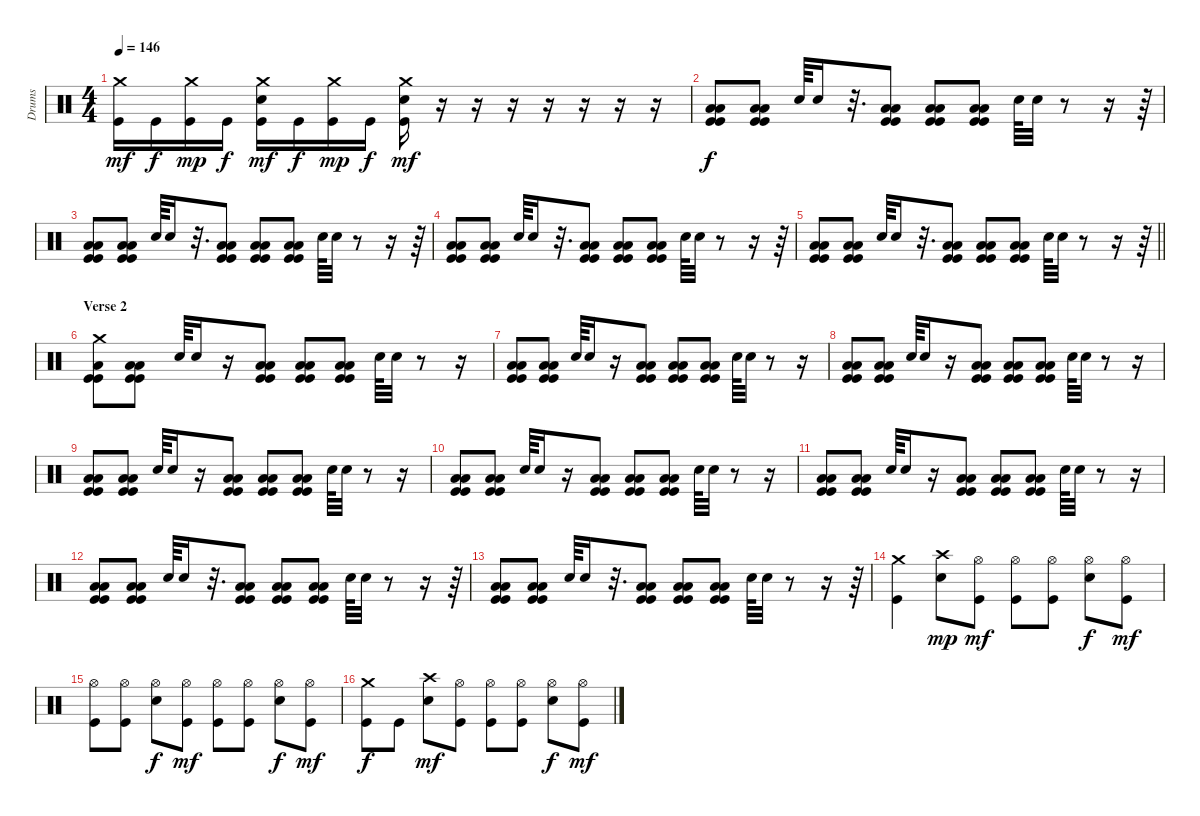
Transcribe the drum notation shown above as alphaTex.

\track ("Drums" "Drums") {instrument percussion}
\staff {score}
\articulation defaults
\ts (4 4)
\tempo 146
\clef neutral
\ks c
("Crash medium (hit)" "Kick (hit)").16{dy mf} "Kick (hit)".16{dy f} ("Crash medium (hit)" "Kick (hit)").16{dy mp} "Kick (hit)".16{dy f} ("Crash medium (hit)" "Snare (hit) 2" "Kick (hit)").16{dy mf} "Kick (hit)".16{dy f} ("Crash medium (hit)" "Kick (hit)").16{dy mp} "Kick (hit)".16{dy f} ("Crash medium (hit)" "Snare (hit) 2" "Kick (hit)").16{dy mf} r.16 r.16 r.16 r.16 r.16 r.16 r.16 |
("Low Tom (hit)" "Low Floor Tom (hit)" "Kick (hit)" "Kick (hit)").8{dy f} ("Low Tom (hit)" "Low Floor Tom (hit)" "Kick (hit)" "Kick (hit)").8 "Snare (hit) 2".64 "Snare (hit) 2".16 r.32{d} ("Low Tom (hit)" "Low Floor Tom (hit)" "Kick (hit)" "Kick (hit)").8 ("Low Tom (hit)" "Low Floor Tom (hit)" "Kick (hit)" "Kick (hit)").8 ("Low Tom (hit)" "Low Floor Tom (hit)" "Kick (hit)" "Kick (hit)").8 "Snare (hit) 2".64 "Snare (hit) 2".32 r.8 r.16 r.64 |
("Low Tom (hit)" "Low Floor Tom (hit)" "Kick (hit)" "Kick (hit)").8 ("Low Tom (hit)" "Low Floor Tom (hit)" "Kick (hit)" "Kick (hit)").8 "Snare (hit) 2".64 "Snare (hit) 2".16 r.32{d} ("Low Tom (hit)" "Low Floor Tom (hit)" "Kick (hit)" "Kick (hit)").8 ("Low Tom (hit)" "Low Floor Tom (hit)" "Kick (hit)" "Kick (hit)").8 ("Low Tom (hit)" "Low Floor Tom (hit)" "Kick (hit)" "Kick (hit)").8 "Snare (hit) 2".64 "Snare (hit) 2".32 r.8 r.16 r.64 |
("Low Tom (hit)" "Low Floor Tom (hit)" "Kick (hit)" "Kick (hit)").8 ("Low Tom (hit)" "Low Floor Tom (hit)" "Kick (hit)" "Kick (hit)").8 "Snare (hit) 2".64 "Snare (hit) 2".16 r.32{d} ("Low Tom (hit)" "Low Floor Tom (hit)" "Kick (hit)" "Kick (hit)").8 ("Low Tom (hit)" "Low Floor Tom (hit)" "Kick (hit)" "Kick (hit)").8 ("Low Tom (hit)" "Low Floor Tom (hit)" "Kick (hit)" "Kick (hit)").8 "Snare (hit) 2".64 "Snare (hit) 2".32 r.8 r.16 r.64 |
\barLineRight lightlight
("Low Tom (hit)" "Low Floor Tom (hit)" "Kick (hit)" "Kick (hit)").8 ("Low Tom (hit)" "Low Floor Tom (hit)" "Kick (hit)" "Kick (hit)").8 "Snare (hit) 2".64 "Snare (hit) 2".16 r.32{d} ("Low Tom (hit)" "Low Floor Tom (hit)" "Kick (hit)" "Kick (hit)").8 ("Low Tom (hit)" "Low Floor Tom (hit)" "Kick (hit)" "Kick (hit)").8 ("Low Tom (hit)" "Low Floor Tom (hit)" "Kick (hit)" "Kick (hit)").8 "Snare (hit) 2".64 "Snare (hit) 2".32 r.8 r.16 r.64 |
\section ("" "Verse 2")
("Crash medium (hit)" "Low Tom (hit)" "Kick (hit)" "Kick (hit)").8 ("Low Tom (hit)" "Low Floor Tom (hit)" "Kick (hit)" "Kick (hit)").8 "Snare (hit) 2".64 "Snare (hit) 2".16 r.16 ("Low Tom (hit)" "Low Floor Tom (hit)" "Kick (hit)" "Kick (hit)").8 ("Low Tom (hit)" "Low Floor Tom (hit)" "Kick (hit)" "Kick (hit)").8 ("Low Tom (hit)" "Low Floor Tom (hit)" "Kick (hit)" "Kick (hit)").8 "Snare (hit) 2".64 "Snare (hit) 2".32 r.8 r.16 |
("Low Tom (hit)" "Low Floor Tom (hit)" "Kick (hit)" "Kick (hit)").8 ("Low Tom (hit)" "Low Floor Tom (hit)" "Kick (hit)" "Kick (hit)").8 "Snare (hit) 2".64 "Snare (hit) 2".16 r.16 ("Low Tom (hit)" "Low Floor Tom (hit)" "Kick (hit)" "Kick (hit)").8 ("Low Tom (hit)" "Low Floor Tom (hit)" "Kick (hit)" "Kick (hit)").8 ("Low Tom (hit)" "Low Floor Tom (hit)" "Kick (hit)" "Kick (hit)").8 "Snare (hit) 2".64 "Snare (hit) 2".32 r.8 r.16 |
("Low Tom (hit)" "Low Floor Tom (hit)" "Kick (hit)" "Kick (hit)").8 ("Low Tom (hit)" "Low Floor Tom (hit)" "Kick (hit)" "Kick (hit)").8 "Snare (hit) 2".64 "Snare (hit) 2".16 r.16 ("Low Tom (hit)" "Low Floor Tom (hit)" "Kick (hit)" "Kick (hit)").8 ("Low Tom (hit)" "Low Floor Tom (hit)" "Kick (hit)" "Kick (hit)").8 ("Low Tom (hit)" "Low Floor Tom (hit)" "Kick (hit)" "Kick (hit)").8 "Snare (hit) 2".64 "Snare (hit) 2".32 r.8 r.16 |
("Low Tom (hit)" "Low Floor Tom (hit)" "Kick (hit)" "Kick (hit)").8 ("Low Tom (hit)" "Low Floor Tom (hit)" "Kick (hit)" "Kick (hit)").8 "Snare (hit) 2".64 "Snare (hit) 2".16 r.16 ("Low Tom (hit)" "Low Floor Tom (hit)" "Kick (hit)" "Kick (hit)").8 ("Low Tom (hit)" "Low Floor Tom (hit)" "Kick (hit)" "Kick (hit)").8 ("Low Tom (hit)" "Low Floor Tom (hit)" "Kick (hit)" "Kick (hit)").8 "Snare (hit) 2".64 "Snare (hit) 2".32 r.8 r.16 |
("Low Tom (hit)" "Low Floor Tom (hit)" "Kick (hit)" "Kick (hit)").8 ("Low Tom (hit)" "Low Floor Tom (hit)" "Kick (hit)" "Kick (hit)").8 "Snare (hit) 2".64 "Snare (hit) 2".16 r.16 ("Low Tom (hit)" "Low Floor Tom (hit)" "Kick (hit)" "Kick (hit)").8 ("Low Tom (hit)" "Low Floor Tom (hit)" "Kick (hit)" "Kick (hit)").8 ("Low Tom (hit)" "Low Floor Tom (hit)" "Kick (hit)" "Kick (hit)").8 "Snare (hit) 2".64 "Snare (hit) 2".32 r.8 r.16 |
("Low Tom (hit)" "Low Floor Tom (hit)" "Kick (hit)" "Kick (hit)").8 ("Low Tom (hit)" "Low Floor Tom (hit)" "Kick (hit)" "Kick (hit)").8 "Snare (hit) 2".64 "Snare (hit) 2".16 r.16 ("Low Tom (hit)" "Low Floor Tom (hit)" "Kick (hit)" "Kick (hit)").8 ("Low Tom (hit)" "Low Floor Tom (hit)" "Kick (hit)" "Kick (hit)").8 ("Low Tom (hit)" "Low Floor Tom (hit)" "Kick (hit)" "Kick (hit)").8 "Snare (hit) 2".64 "Snare (hit) 2".32 r.8 r.16 |
("Low Tom (hit)" "Low Floor Tom (hit)" "Kick (hit)" "Kick (hit)").8 ("Low Tom (hit)" "Low Floor Tom (hit)" "Kick (hit)" "Kick (hit)").8 "Snare (hit) 2".64 "Snare (hit) 2".16 r.32{d} ("Low Tom (hit)" "Low Floor Tom (hit)" "Kick (hit)" "Kick (hit)").8 ("Low Tom (hit)" "Low Floor Tom (hit)" "Kick (hit)" "Kick (hit)").8 ("Low Tom (hit)" "Low Floor Tom (hit)" "Kick (hit)" "Kick (hit)").8 "Snare (hit) 2".64 "Snare (hit) 2".32 r.8 r.16 r.64 |
("Low Tom (hit)" "Low Floor Tom (hit)" "Kick (hit)" "Kick (hit)").8 ("Low Tom (hit)" "Low Floor Tom (hit)" "Kick (hit)" "Kick (hit)").8 "Snare (hit) 2".64 "Snare (hit) 2".16 r.32{d} ("Low Tom (hit)" "Low Floor Tom (hit)" "Kick (hit)" "Kick (hit)").8 ("Low Tom (hit)" "Low Floor Tom (hit)" "Kick (hit)" "Kick (hit)").8 ("Low Tom (hit)" "Low Floor Tom (hit)" "Kick (hit)" "Kick (hit)").8 "Snare (hit) 2".64 "Snare (hit) 2".32 r.8 r.16 r.64 |
("Crash medium (hit)" "Kick (hit)").4 ("Crash high (hit)" "Snare (hit) 2").8{dy mp} ("Hi-Hat (open)" "Kick (hit)").8{dy mf} ("Hi-Hat (open)" "Kick (hit)").8 ("Hi-Hat (open)" "Kick (hit)").8 ("Hi-Hat (open)" "Snare (hit) 2").8{dy f} ("Hi-Hat (open)" "Kick (hit)").8{dy mf} |
("Hi-Hat (open)" "Kick (hit)").8 ("Hi-Hat (open)" "Kick (hit)").8 ("Hi-Hat (open)" "Snare (hit) 2").8{dy f} ("Hi-Hat (open)" "Kick (hit)").8{dy mf} ("Hi-Hat (open)" "Kick (hit)").8 ("Hi-Hat (open)" "Kick (hit)").8 ("Hi-Hat (open)" "Snare (hit) 2").8{dy f} ("Hi-Hat (open)" "Kick (hit)").8{dy mf} |
("Crash medium (hit)" "Kick (hit)").8{dy f} "Kick (hit)".8 ("Crash high (hit)" "Snare (hit) 2").8{dy mf} ("Hi-Hat (open)" "Kick (hit)").8 ("Hi-Hat (open)" "Kick (hit)").8 ("Hi-Hat (open)" "Kick (hit)").8 ("Hi-Hat (open)" "Snare (hit) 2").8{dy f} ("Hi-Hat (open)" "Kick (hit)").8{dy mf}
